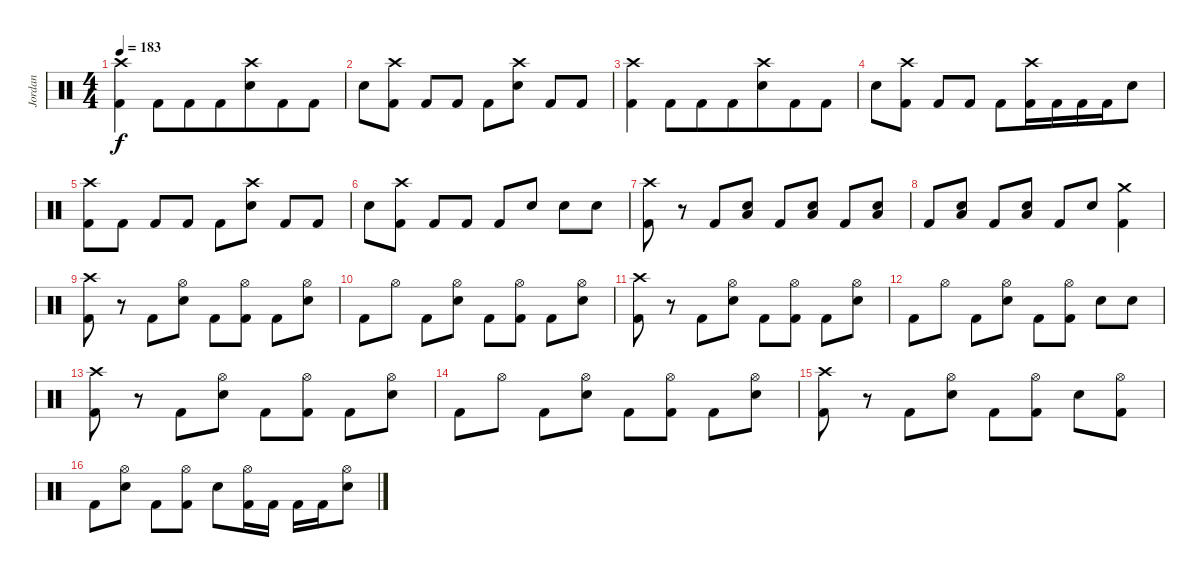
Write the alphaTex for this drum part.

\track ("Jordan" "Jordan") {instrument percussion bank 82}
\staff {score}
\articulation defaults
\ts (4 4)
\tempo 183
\clef neutral
\ks c
("Crash high (hit)" "Kick (hit) 2").4{dy f} "Kick (hit) 2".8 "Kick (hit) 2".8{beam merge} "Kick (hit) 2".8 ("Crash high (hit)" "Snare (hit) 2").8{beam merge} "Kick (hit) 2".8 "Kick (hit) 2".8 |
"Snare (hit) 2".8 ("Crash high (hit)" "Kick (hit) 2").8 "Kick (hit) 2".8{beam merge} "Kick (hit) 2".8 "Kick (hit) 2".8{beam merge} ("Crash high (hit)" "Snare (hit) 2").8 "Kick (hit) 2".8{beam merge} "Kick (hit) 2".8 |
("Crash high (hit)" "Kick (hit) 2").4 "Kick (hit) 2".8 "Kick (hit) 2".8{beam merge} "Kick (hit) 2".8 ("Crash high (hit)" "Snare (hit) 2").8{beam merge} "Kick (hit) 2".8 "Kick (hit) 2".8 |
"Snare (hit) 2".8 ("Crash high (hit)" "Kick (hit) 2").8 "Kick (hit) 2".8{beam merge} "Kick (hit) 2".8 "Kick (hit) 2".8{beam merge} ("Crash high (hit)" "Kick (hit) 2").16{beam merge} "Kick (hit) 2".16{beam merge} "Kick (hit) 2".16 "Kick (hit) 2".16{beam merge} "Snare (hit) 2".8 |
("Crash high (hit)" "Kick (hit) 2").8 "Kick (hit) 2".8 "Kick (hit) 2".8{beam merge} "Kick (hit) 2".8 "Kick (hit) 2".8{beam merge} ("Crash high (hit)" "Snare (hit) 2").8 "Kick (hit) 2".8{beam merge} "Kick (hit) 2".8 |
"Snare (hit) 2".8 ("Crash high (hit)" "Kick (hit) 2").8 "Kick (hit) 2".8{beam merge} "Kick (hit) 2".8 "Kick (hit) 2".8{beam merge} "Snare (hit) 2".8 "Snare (hit) 2".8{beam merge} "Snare (hit) 2".8 |
("Crash high (hit)" "Kick (hit) 2").8 r.8 "Kick (hit) 2".8{beam merge} ("Low Tom (hit)" "Snare (hit) 2").8 "Kick (hit) 2".8{beam merge} ("Low Tom (hit)" "Snare (hit) 2").8 "Kick (hit) 2".8{beam merge} ("Low Tom (hit)" "Snare (hit) 2").8 |
"Kick (hit) 2".8{beam merge} ("Low Tom (hit)" "Snare (hit) 2").8 "Kick (hit) 2".8{beam merge} ("Low Tom (hit)" "Snare (hit) 2").8 "Kick (hit) 2".8{beam merge} "Snare (hit) 2".8 ("Crash medium (hit)" "Kick (hit) 2").4 |
("Crash high (hit)" "Kick (hit) 2").8 r.8 "Kick (hit) 2".8{beam merge} ("Hi-Hat (open)" "Snare (hit) 2").8 "Kick (hit) 2".8{beam merge} ("Hi-Hat (open)" "Kick (hit) 2").8 "Kick (hit) 2".8{beam merge} ("Hi-Hat (open)" "Snare (hit) 2").8 |
"Kick (hit) 2".8{beam merge} "Hi-Hat (open)".8 "Kick (hit) 2".8{beam merge} ("Hi-Hat (open)" "Snare (hit) 2").8 "Kick (hit) 2".8{beam merge} ("Hi-Hat (open)" "Kick (hit) 2").8 "Kick (hit) 2".8{beam merge} ("Hi-Hat (open)" "Snare (hit) 2").8 |
("Crash high (hit)" "Kick (hit) 2").8 r.8 "Kick (hit) 2".8{beam merge} ("Hi-Hat (open)" "Snare (hit) 2").8 "Kick (hit) 2".8{beam merge} ("Hi-Hat (open)" "Kick (hit) 2").8 "Kick (hit) 2".8{beam merge} ("Hi-Hat (open)" "Snare (hit) 2").8 |
"Kick (hit) 2".8{beam merge} "Hi-Hat (open)".8 "Kick (hit) 2".8{beam merge} ("Hi-Hat (open)" "Snare (hit) 2").8 "Kick (hit) 2".8{beam merge} ("Hi-Hat (open)" "Kick (hit) 2").8 "Snare (hit) 2".8{beam merge} "Snare (hit) 2".8 |
("Crash high (hit)" "Kick (hit) 2").8 r.8 "Kick (hit) 2".8{beam merge} ("Hi-Hat (open)" "Snare (hit) 2").8 "Kick (hit) 2".8{beam merge} ("Hi-Hat (open)" "Kick (hit) 2").8 "Kick (hit) 2".8{beam merge} ("Hi-Hat (open)" "Snare (hit) 2").8 |
"Kick (hit) 2".8{beam merge} "Hi-Hat (open)".8 "Kick (hit) 2".8{beam merge} ("Hi-Hat (open)" "Snare (hit) 2").8 "Kick (hit) 2".8{beam merge} ("Hi-Hat (open)" "Kick (hit) 2").8 "Kick (hit) 2".8{beam merge} ("Hi-Hat (open)" "Snare (hit) 2").8 |
("Crash high (hit)" "Kick (hit) 2").8 r.8 "Kick (hit) 2".8{beam merge} ("Hi-Hat (open)" "Snare (hit) 2").8 "Kick (hit) 2".8{beam merge} ("Hi-Hat (open)" "Kick (hit) 2").8 "Snare (hit) 2".8{beam merge} ("Hi-Hat (open)" "Kick (hit) 2").8 |
"Kick (hit) 2".8{beam merge} ("Hi-Hat (open)" "Snare (hit) 2").8 "Kick (hit) 2".8{beam merge} ("Hi-Hat (open)" "Kick (hit) 2").8 "Snare (hit) 2".8{beam merge} ("Hi-Hat (open)" "Kick (hit) 2").16 "Kick (hit) 2".16 "Kick (hit) 2".16 "Kick (hit) 2".16 ("Hi-Hat (open)" "Snare (hit) 2").8
